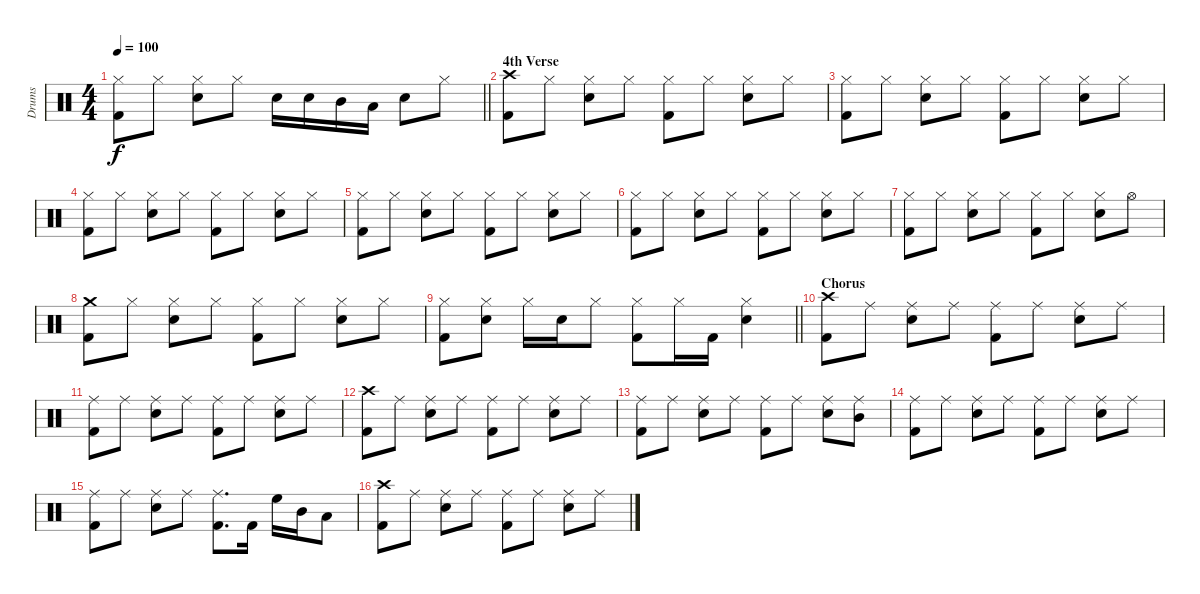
\track ("Drums" "Drums") {instrument percussion}
\staff {score}
\articulation defaults
\ts (4 4)
\tempo 100
\clef neutral
\barLineRight lightlight
\ks c
("Hi-Hat (closed)" "Kick (hit) 2").8{dy f} "Hi-Hat (closed)".8 ("Hi-Hat (closed)" "Snare (hit) 2").8 "Hi-Hat (closed)".8 "Snare (hit) 2".16 "Snare (hit) 2".16 "Mid Tom (hit)".16 "Low Tom (hit)".16 "Snare (hit) 2".8 "Hi-Hat (closed)".8 |
\section ("" "4th Verse")
("Crash high (hit)" "Kick (hit) 2").8 "Hi-Hat (closed)".8 ("Hi-Hat (closed)" "Snare (hit) 2").8 "Hi-Hat (closed)".8 ("Hi-Hat (closed)" "Kick (hit) 2").8 "Hi-Hat (closed)".8 ("Hi-Hat (closed)" "Snare (hit) 2").8 "Hi-Hat (closed)".8 |
("Hi-Hat (closed)" "Kick (hit) 2").8 "Hi-Hat (closed)".8 ("Hi-Hat (closed)" "Snare (hit) 2").8 "Hi-Hat (closed)".8 ("Hi-Hat (closed)" "Kick (hit) 2").8 "Hi-Hat (closed)".8 ("Hi-Hat (closed)" "Snare (hit) 2").8 "Hi-Hat (closed)".8 |
("Hi-Hat (closed)" "Kick (hit) 2").8 "Hi-Hat (closed)".8 ("Hi-Hat (closed)" "Snare (hit) 2").8 "Hi-Hat (closed)".8 ("Hi-Hat (closed)" "Kick (hit) 2").8 "Hi-Hat (closed)".8 ("Hi-Hat (closed)" "Snare (hit) 2").8 "Hi-Hat (closed)".8 |
("Hi-Hat (closed)" "Kick (hit) 2").8 "Hi-Hat (closed)".8 ("Hi-Hat (closed)" "Snare (hit) 2").8 "Hi-Hat (closed)".8 ("Hi-Hat (closed)" "Kick (hit) 2").8 "Hi-Hat (closed)".8 ("Hi-Hat (closed)" "Snare (hit) 2").8 "Hi-Hat (closed)".8 |
("Hi-Hat (closed)" "Kick (hit) 2").8 "Hi-Hat (closed)".8 ("Hi-Hat (closed)" "Snare (hit) 2").8 "Hi-Hat (closed)".8 ("Hi-Hat (closed)" "Kick (hit) 2").8 "Hi-Hat (closed)".8 ("Hi-Hat (closed)" "Snare (hit) 2").8 "Hi-Hat (closed)".8 |
("Hi-Hat (closed)" "Kick (hit) 2").8 "Hi-Hat (closed)".8 ("Hi-Hat (closed)" "Snare (hit) 2").8 "Hi-Hat (closed)".8 ("Hi-Hat (closed)" "Kick (hit) 2").8 "Hi-Hat (closed)".8 ("Hi-Hat (closed)" "Snare (hit) 2").8 "Hi-Hat (open)".8 |
("Crash medium (hit)" "Kick (hit) 2").8 "Hi-Hat (closed)".8 ("Hi-Hat (closed)" "Snare (hit) 2").8 "Hi-Hat (closed)".8 ("Hi-Hat (closed)" "Kick (hit) 2").8 "Hi-Hat (closed)".8 ("Hi-Hat (closed)" "Snare (hit) 2").8 "Hi-Hat (closed)".8 |
\barLineRight lightlight
("Hi-Hat (closed)" "Kick (hit) 2").8 ("Hi-Hat (closed)" "Snare (hit) 2").8 "Hi-Hat (closed)".16 "Snare (hit) 2".16 "Hi-Hat (closed)".8 ("Hi-Hat (closed)" "Kick (hit) 2").8 "Hi-Hat (closed)".16 "Kick (hit) 2".16 ("Hi-Hat (closed)" "Snare (hit) 2").4 |
\section ("" "Chorus")
("Crash high (hit)" "Kick (hit) 2").8 "Ride (middle)".8 ("Ride (middle)" "Snare (hit) 2").8 "Ride (middle)".8 ("Ride (middle)" "Kick (hit) 2").8 "Ride (middle)".8 ("Ride (middle)" "Snare (hit) 2").8 "Ride (middle)".8 |
("Ride (middle)" "Kick (hit) 2").8 "Ride (middle)".8 ("Ride (middle)" "Snare (hit) 2").8 "Ride (middle)".8 ("Ride (middle)" "Kick (hit) 2").8 "Ride (middle)".8 ("Ride (middle)" "Snare (hit) 2").8 "Ride (middle)".8 |
("Crash high (hit)" "Kick (hit) 2").8 "Ride (middle)".8 ("Ride (middle)" "Snare (hit) 2").8 "Ride (middle)".8 ("Ride (middle)" "Kick (hit) 2").8 "Ride (middle)".8 ("Ride (middle)" "Snare (hit) 2").8 "Ride (middle)".8 |
("Ride (middle)" "Kick (hit) 2").8 "Ride (middle)".8 ("Ride (middle)" "Snare (hit) 2").8 "Ride (middle)".8 ("Ride (middle)" "Kick (hit) 2").8 "Ride (middle)".8 ("Ride (middle)" "Snare (hit) 2").8 ("Ride (middle)" "Mid Tom (hit)").8 |
("Ride (middle)" "Kick (hit) 2").8 "Ride (middle)".8 ("Ride (middle)" "Snare (hit) 2").8 "Ride (middle)".8 ("Ride (middle)" "Kick (hit) 2").8 "Ride (middle)".8 ("Ride (middle)" "Snare (hit) 2").8 "Ride (middle)".8 |
("Ride (middle)" "Kick (hit) 2").8 "Ride (middle)".8 ("Ride (middle)" "Snare (hit) 2").8 "Ride (middle)".8 ("Ride (middle)" "Kick (hit) 2").8{d} "Kick (hit) 2".16 "High Floor Tom (hit)".16 "Mid Tom (hit)".16 "Low Tom (hit)".8 |
("Crash high (hit)" "Kick (hit) 2").8 "Ride (middle)".8 ("Ride (middle)" "Snare (hit) 2").8 "Ride (middle)".8 ("Ride (middle)" "Kick (hit) 2").8 "Ride (middle)".8 ("Ride (middle)" "Snare (hit) 2").8 "Ride (middle)".8
